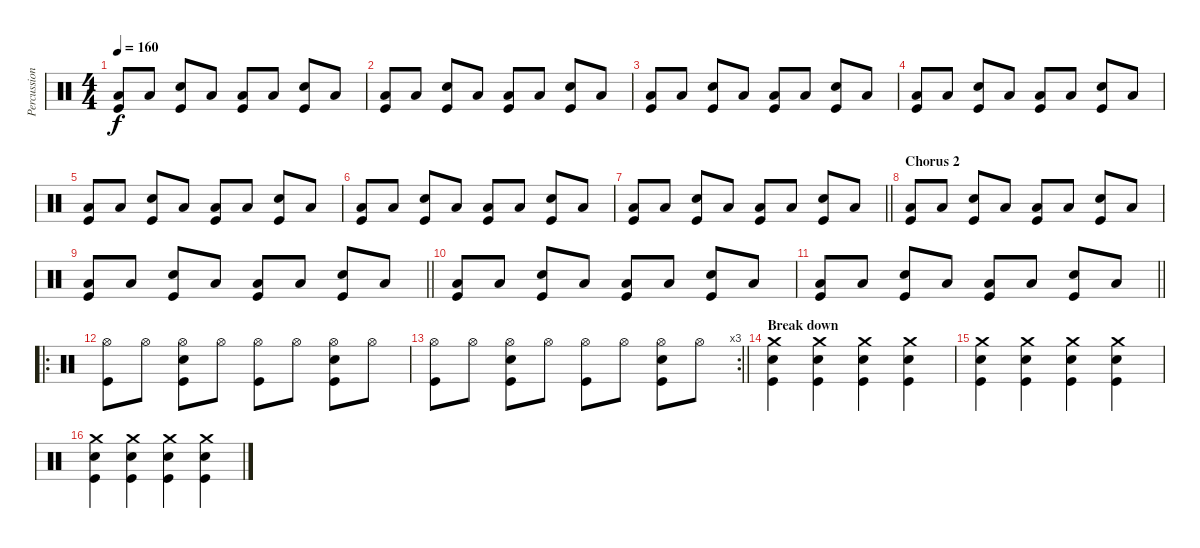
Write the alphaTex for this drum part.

\track ("Percussion" "Percussion") {instrument percussion}
\staff {score}
\articulation defaults
\ts (4 4)
\tempo 160
\clef neutral
\ks c
("Low Floor Tom (hit)" "Kick (hit)").8{dy f} "Low Floor Tom (hit)".8 ("Snare (hit) 2" "Kick (hit)").8 "Low Floor Tom (hit)".8 ("Low Floor Tom (hit)" "Kick (hit)").8 "Low Floor Tom (hit)".8 ("Snare (hit) 2" "Kick (hit)").8 "Low Floor Tom (hit)".8 |
("Low Floor Tom (hit)" "Kick (hit)").8 "Low Floor Tom (hit)".8 ("Snare (hit) 2" "Kick (hit)").8 "Low Floor Tom (hit)".8 ("Low Floor Tom (hit)" "Kick (hit)").8 "Low Floor Tom (hit)".8 ("Snare (hit) 2" "Kick (hit)").8 "Low Floor Tom (hit)".8 |
("Low Floor Tom (hit)" "Kick (hit)").8 "Low Floor Tom (hit)".8 ("Snare (hit) 2" "Kick (hit)").8 "Low Floor Tom (hit)".8 ("Low Floor Tom (hit)" "Kick (hit)").8 "Low Floor Tom (hit)".8 ("Snare (hit) 2" "Kick (hit)").8 "Low Floor Tom (hit)".8 |
("Low Floor Tom (hit)" "Kick (hit)").8 "Low Floor Tom (hit)".8 ("Snare (hit) 2" "Kick (hit)").8 "Low Floor Tom (hit)".8 ("Low Floor Tom (hit)" "Kick (hit)").8 "Low Floor Tom (hit)".8 ("Snare (hit) 2" "Kick (hit)").8 "Low Floor Tom (hit)".8 |
("Low Floor Tom (hit)" "Kick (hit)").8 "Low Floor Tom (hit)".8 ("Snare (hit) 2" "Kick (hit)").8 "Low Floor Tom (hit)".8 ("Low Floor Tom (hit)" "Kick (hit)").8 "Low Floor Tom (hit)".8 ("Snare (hit) 2" "Kick (hit)").8 "Low Floor Tom (hit)".8 |
("Low Floor Tom (hit)" "Kick (hit)").8 "Low Floor Tom (hit)".8 ("Snare (hit) 2" "Kick (hit)").8 "Low Floor Tom (hit)".8 ("Low Floor Tom (hit)" "Kick (hit)").8 "Low Floor Tom (hit)".8 ("Snare (hit) 2" "Kick (hit)").8 "Low Floor Tom (hit)".8 |
\barLineRight lightlight
("Low Floor Tom (hit)" "Kick (hit)").8 "Low Floor Tom (hit)".8 ("Snare (hit) 2" "Kick (hit)").8 "Low Floor Tom (hit)".8 ("Low Floor Tom (hit)" "Kick (hit)").8 "Low Floor Tom (hit)".8 ("Snare (hit) 2" "Kick (hit)").8 "Low Floor Tom (hit)".8 |
\section ("" "Chorus 2")
("Low Floor Tom (hit)" "Kick (hit)").8 "Low Floor Tom (hit)".8 ("Snare (hit) 2" "Kick (hit)").8 "Low Floor Tom (hit)".8 ("Low Floor Tom (hit)" "Kick (hit)").8 "Low Floor Tom (hit)".8 ("Snare (hit) 2" "Kick (hit)").8 "Low Floor Tom (hit)".8 |
\barLineRight lightlight
("Low Floor Tom (hit)" "Kick (hit)").8 "Low Floor Tom (hit)".8 ("Snare (hit) 2" "Kick (hit)").8 "Low Floor Tom (hit)".8 ("Low Floor Tom (hit)" "Kick (hit)").8 "Low Floor Tom (hit)".8 ("Snare (hit) 2" "Kick (hit)").8 "Low Floor Tom (hit)".8 |
("Low Floor Tom (hit)" "Kick (hit)").8 "Low Floor Tom (hit)".8 ("Snare (hit) 2" "Kick (hit)").8 "Low Floor Tom (hit)".8 ("Low Floor Tom (hit)" "Kick (hit)").8 "Low Floor Tom (hit)".8 ("Snare (hit) 2" "Kick (hit)").8 "Low Floor Tom (hit)".8 |
\barLineRight lightlight
("Low Floor Tom (hit)" "Kick (hit)").8 "Low Floor Tom (hit)".8 ("Snare (hit) 2" "Kick (hit)").8 "Low Floor Tom (hit)".8 ("Low Floor Tom (hit)" "Kick (hit)").8 "Low Floor Tom (hit)".8 ("Snare (hit) 2" "Kick (hit)").8 "Low Floor Tom (hit)".8 |
\ro
("Hi-Hat (open)" "Kick (hit)").8 "Hi-Hat (open)".8 ("Hi-Hat (open)" "Snare (hit) 2" "Kick (hit)").8 "Hi-Hat (open)".8 ("Hi-Hat (open)" "Kick (hit)").8 "Hi-Hat (open)".8 ("Hi-Hat (open)" "Snare (hit) 2" "Kick (hit)").8 "Hi-Hat (open)".8 |
\rc 3
\barLineRight lightlight
("Hi-Hat (open)" "Kick (hit)").8 "Hi-Hat (open)".8 ("Hi-Hat (open)" "Snare (hit) 2" "Kick (hit)").8 "Hi-Hat (open)".8 ("Hi-Hat (open)" "Kick (hit)").8 "Hi-Hat (open)".8 ("Hi-Hat (open)" "Snare (hit) 2" "Kick (hit)").8 "Hi-Hat (open)".8 |
\section ("" "Break down")
("Crash medium (hit)" "Snare (hit) 2" "Kick (hit)").4 ("Crash medium (hit)" "Snare (hit) 2" "Kick (hit)").4 ("Crash medium (hit)" "Snare (hit) 2" "Kick (hit)").4 ("Crash medium (hit)" "Snare (hit) 2" "Kick (hit)").4 |
("Crash medium (hit)" "Snare (hit) 2" "Kick (hit)").4 ("Crash medium (hit)" "Snare (hit) 2" "Kick (hit)").4 ("Crash medium (hit)" "Snare (hit) 2" "Kick (hit)").4 ("Crash medium (hit)" "Snare (hit) 2" "Kick (hit)").4 |
("Crash medium (hit)" "Snare (hit) 2" "Kick (hit)").4 ("Crash medium (hit)" "Snare (hit) 2" "Kick (hit)").4 ("Crash medium (hit)" "Snare (hit) 2" "Kick (hit)").4 ("Crash medium (hit)" "Snare (hit) 2" "Kick (hit)").4
